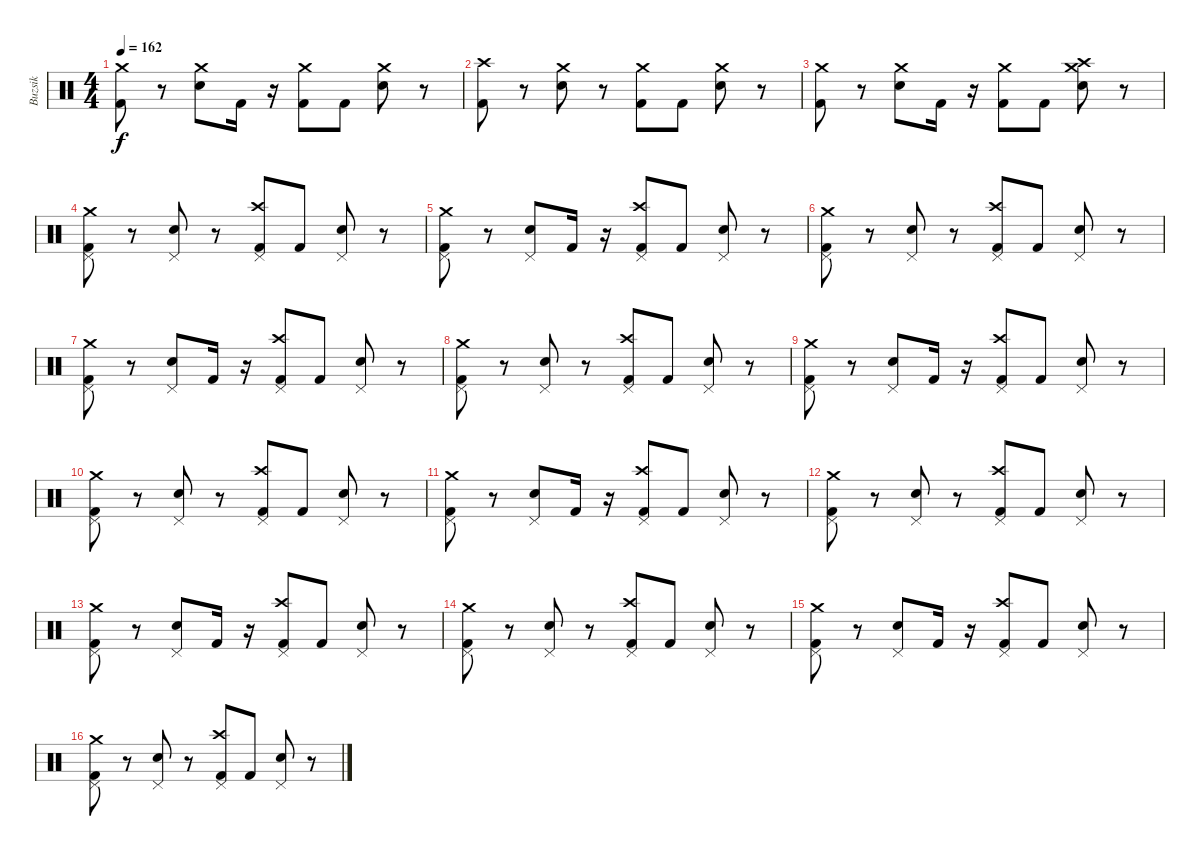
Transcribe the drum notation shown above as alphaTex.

\track ("Buzsik" "Buzsik") {instrument percussion}
\staff {score}
\articulation defaults
\ts (4 4)
\tempo 162
\clef neutral
\ks c
("Crash medium (hit)" "Kick (hit) 2").8{dy f} r.8 ("Crash medium (hit)" "Electric Snare (hit)").8 "Kick (hit) 2".16 r.16 ("Crash medium (hit)" "Kick (hit) 2").8 "Kick (hit) 2".8 ("Crash medium (hit)" "Electric Snare (hit)").8 r.8 |
("Crash high (hit)" "Kick (hit) 2").8 r.8 ("Crash medium (hit)" "Electric Snare (hit)").8 r.8 ("Crash medium (hit)" "Kick (hit) 2").8 "Kick (hit) 2".8 ("Crash medium (hit)" "Electric Snare (hit)").8 r.8 |
("Crash medium (hit)" "Kick (hit) 2").8 r.8 ("Crash medium (hit)" "Electric Snare (hit)").8 "Kick (hit) 2".16 r.16 ("Crash medium (hit)" "Kick (hit) 2").8 "Kick (hit) 2".8 ("Crash medium (hit)" "Crash high (hit)" "Electric Snare (hit)").8 r.8 |
("Crash medium (hit)" "Pedal Hi-Hat (hit)" "Kick (hit) 2").8 r.8 ("Pedal Hi-Hat (hit)" "Electric Snare (hit)").8 r.8 ("Crash high (hit)" "Pedal Hi-Hat (hit)" "Kick (hit) 2").8 "Kick (hit) 2".8 ("Pedal Hi-Hat (hit)" "Electric Snare (hit)").8 r.8 |
("Crash medium (hit)" "Pedal Hi-Hat (hit)" "Kick (hit) 2").8 r.8 ("Pedal Hi-Hat (hit)" "Electric Snare (hit)").8 "Kick (hit) 2".16 r.16 ("Crash high (hit)" "Pedal Hi-Hat (hit)" "Kick (hit) 2").8 "Kick (hit) 2".8 ("Pedal Hi-Hat (hit)" "Electric Snare (hit)").8 r.8 |
("Crash medium (hit)" "Pedal Hi-Hat (hit)" "Kick (hit) 2").8 r.8 ("Pedal Hi-Hat (hit)" "Electric Snare (hit)").8 r.8 ("Crash high (hit)" "Pedal Hi-Hat (hit)" "Kick (hit) 2").8 "Kick (hit) 2".8 ("Pedal Hi-Hat (hit)" "Electric Snare (hit)").8 r.8 |
("Crash medium (hit)" "Pedal Hi-Hat (hit)" "Kick (hit) 2").8 r.8 ("Pedal Hi-Hat (hit)" "Electric Snare (hit)").8 "Kick (hit) 2".16 r.16 ("Crash high (hit)" "Pedal Hi-Hat (hit)" "Kick (hit) 2").8 "Kick (hit) 2".8 ("Pedal Hi-Hat (hit)" "Electric Snare (hit)").8 r.8 |
("Crash medium (hit)" "Pedal Hi-Hat (hit)" "Kick (hit) 2").8 r.8 ("Pedal Hi-Hat (hit)" "Electric Snare (hit)").8 r.8 ("Crash high (hit)" "Pedal Hi-Hat (hit)" "Kick (hit) 2").8 "Kick (hit) 2".8 ("Pedal Hi-Hat (hit)" "Electric Snare (hit)").8 r.8 |
("Crash medium (hit)" "Pedal Hi-Hat (hit)" "Kick (hit) 2").8 r.8 ("Pedal Hi-Hat (hit)" "Electric Snare (hit)").8 "Kick (hit) 2".16 r.16 ("Crash high (hit)" "Pedal Hi-Hat (hit)" "Kick (hit) 2").8 "Kick (hit) 2".8 ("Pedal Hi-Hat (hit)" "Electric Snare (hit)").8 r.8 |
("Crash medium (hit)" "Pedal Hi-Hat (hit)" "Kick (hit) 2").8 r.8 ("Pedal Hi-Hat (hit)" "Electric Snare (hit)").8 r.8 ("Crash high (hit)" "Pedal Hi-Hat (hit)" "Kick (hit) 2").8 "Kick (hit) 2".8 ("Pedal Hi-Hat (hit)" "Electric Snare (hit)").8 r.8 |
("Crash medium (hit)" "Pedal Hi-Hat (hit)" "Kick (hit) 2").8 r.8 ("Pedal Hi-Hat (hit)" "Electric Snare (hit)").8 "Kick (hit) 2".16 r.16 ("Crash high (hit)" "Pedal Hi-Hat (hit)" "Kick (hit) 2").8 "Kick (hit) 2".8 ("Pedal Hi-Hat (hit)" "Electric Snare (hit)").8 r.8 |
("Crash medium (hit)" "Pedal Hi-Hat (hit)" "Kick (hit) 2").8 r.8 ("Pedal Hi-Hat (hit)" "Electric Snare (hit)").8 r.8 ("Crash high (hit)" "Pedal Hi-Hat (hit)" "Kick (hit) 2").8 "Kick (hit) 2".8 ("Pedal Hi-Hat (hit)" "Electric Snare (hit)").8 r.8 |
("Crash medium (hit)" "Pedal Hi-Hat (hit)" "Kick (hit) 2").8 r.8 ("Pedal Hi-Hat (hit)" "Electric Snare (hit)").8 "Kick (hit) 2".16 r.16 ("Crash high (hit)" "Pedal Hi-Hat (hit)" "Kick (hit) 2").8 "Kick (hit) 2".8 ("Pedal Hi-Hat (hit)" "Electric Snare (hit)").8 r.8 |
("Crash medium (hit)" "Pedal Hi-Hat (hit)" "Kick (hit) 2").8 r.8 ("Pedal Hi-Hat (hit)" "Electric Snare (hit)").8 r.8 ("Crash high (hit)" "Pedal Hi-Hat (hit)" "Kick (hit) 2").8 "Kick (hit) 2".8 ("Pedal Hi-Hat (hit)" "Electric Snare (hit)").8 r.8 |
("Crash medium (hit)" "Pedal Hi-Hat (hit)" "Kick (hit) 2").8 r.8 ("Pedal Hi-Hat (hit)" "Electric Snare (hit)").8 "Kick (hit) 2".16 r.16 ("Crash high (hit)" "Pedal Hi-Hat (hit)" "Kick (hit) 2").8 "Kick (hit) 2".8 ("Pedal Hi-Hat (hit)" "Electric Snare (hit)").8 r.8 |
("Crash medium (hit)" "Pedal Hi-Hat (hit)" "Kick (hit) 2").8 r.8 ("Pedal Hi-Hat (hit)" "Electric Snare (hit)").8 r.8 ("Crash high (hit)" "Pedal Hi-Hat (hit)" "Kick (hit) 2").8 "Kick (hit) 2".8 ("Pedal Hi-Hat (hit)" "Electric Snare (hit)").8 r.8
